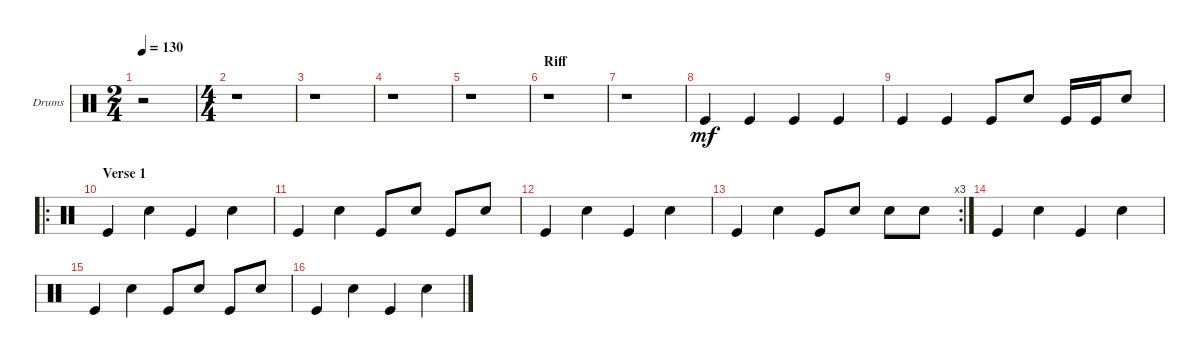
\defaultSystemsLayout 4
\bracketExtendMode groupsimilarinstruments
\firstSystemTrackNameOrientation horizontal
\otherSystemsTrackNameOrientation horizontal
\chordDiagramsInScore
\track ("Drumkit" "Drums") {instrument percussion}
\staff {score}
\articulation defaults
\ts (2 4)
\tempo 130
\clef neutral
\ks c
r.2{dy mf} |
\ts (4 4)
r.1 |
r.1 |
r.1 |
r.1 |
\section ("" "Riff")
r.1 |
r.1 |
"Kick (hit)".4 "Kick (hit)".4 "Kick (hit)".4 "Kick (hit)".4 |
"Kick (hit)".4 "Kick (hit)".4 "Kick (hit)".8 "Snare (hit) 2".8 "Kick (hit)".16 "Kick (hit)".16 "Snare (hit) 2".8 |
\ro
\section ("" "Verse 1")
"Kick (hit)".4 "Snare (hit) 2".4 "Kick (hit)".4 "Snare (hit) 2".4 |
"Kick (hit)".4 "Snare (hit) 2".4 "Kick (hit)".8 "Snare (hit) 2".8 "Kick (hit)".8 "Snare (hit) 2".8 |
"Kick (hit)".4 "Snare (hit) 2".4 "Kick (hit)".4 "Snare (hit) 2".4 |
\rc 3 "Kick (hit)".4 "Snare (hit) 2".4 "Kick (hit)".8 "Snare (hit) 2".8 "Snare (hit) 2".8 "Snare (hit) 2".8
|
"Kick (hit)".4 "Snare (hit) 2".4 "Kick (hit)".4 "Snare (hit) 2".4 |
"Kick (hit)".4 "Snare (hit) 2".4 "Kick (hit)".8 "Snare (hit) 2".8 "Kick (hit)".8 "Snare (hit) 2".8 |
"Kick (hit)".4 "Snare (hit) 2".4 "Kick (hit)".4 "Snare (hit) 2".4
